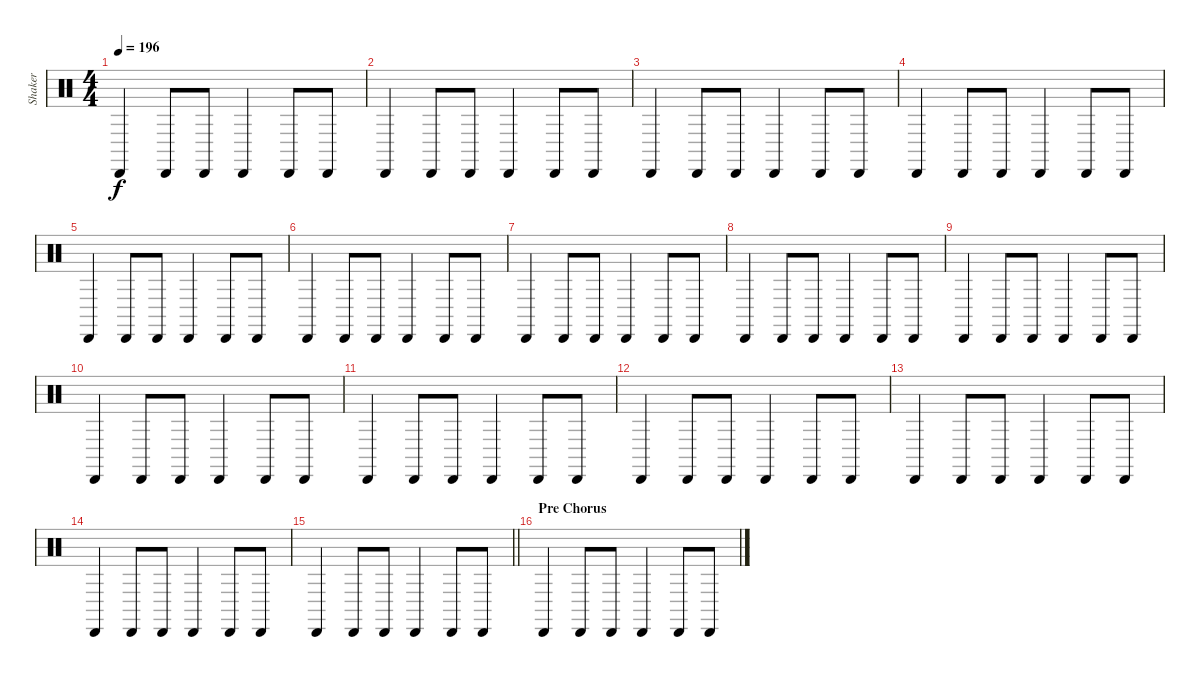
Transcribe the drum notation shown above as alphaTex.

\track ("Shaker" "Shaker") {instrument percussion bank 126}
\staff {score}
\articulation defaults
\ts (4 4)
\tempo 196
\clef neutral
\ks c "Cabasa (hit)".4{dy f} "Cabasa (hit)".8 "Cabasa (hit)".8 "Cabasa (hit)".4 "Cabasa (hit)".8 "Cabasa (hit)".8
|
"Cabasa (hit)".4 "Cabasa (hit)".8 "Cabasa (hit)".8 "Cabasa (hit)".4 "Cabasa (hit)".8 "Cabasa (hit)".8 |
"Cabasa (hit)".4 "Cabasa (hit)".8 "Cabasa (hit)".8 "Cabasa (hit)".4 "Cabasa (hit)".8 "Cabasa (hit)".8 |
"Cabasa (hit)".4 "Cabasa (hit)".8 "Cabasa (hit)".8 "Cabasa (hit)".4 "Cabasa (hit)".8 "Cabasa (hit)".8 |
"Cabasa (hit)".4 "Cabasa (hit)".8 "Cabasa (hit)".8 "Cabasa (hit)".4 "Cabasa (hit)".8 "Cabasa (hit)".8 |
"Cabasa (hit)".4 "Cabasa (hit)".8 "Cabasa (hit)".8 "Cabasa (hit)".4 "Cabasa (hit)".8 "Cabasa (hit)".8 |
"Cabasa (hit)".4 "Cabasa (hit)".8 "Cabasa (hit)".8 "Cabasa (hit)".4 "Cabasa (hit)".8 "Cabasa (hit)".8 |
"Cabasa (hit)".4 "Cabasa (hit)".8 "Cabasa (hit)".8 "Cabasa (hit)".4 "Cabasa (hit)".8 "Cabasa (hit)".8 |
"Cabasa (hit)".4 "Cabasa (hit)".8 "Cabasa (hit)".8 "Cabasa (hit)".4 "Cabasa (hit)".8 "Cabasa (hit)".8 |
"Cabasa (hit)".4 "Cabasa (hit)".8 "Cabasa (hit)".8 "Cabasa (hit)".4 "Cabasa (hit)".8 "Cabasa (hit)".8 |
"Cabasa (hit)".4 "Cabasa (hit)".8 "Cabasa (hit)".8 "Cabasa (hit)".4 "Cabasa (hit)".8 "Cabasa (hit)".8 |
"Cabasa (hit)".4 "Cabasa (hit)".8 "Cabasa (hit)".8 "Cabasa (hit)".4 "Cabasa (hit)".8 "Cabasa (hit)".8 |
"Cabasa (hit)".4 "Cabasa (hit)".8 "Cabasa (hit)".8 "Cabasa (hit)".4 "Cabasa (hit)".8 "Cabasa (hit)".8 |
"Cabasa (hit)".4 "Cabasa (hit)".8 "Cabasa (hit)".8 "Cabasa (hit)".4 "Cabasa (hit)".8 "Cabasa (hit)".8 |
\barLineRight lightlight "Cabasa (hit)".4 "Cabasa (hit)".8 "Cabasa (hit)".8 "Cabasa (hit)".4 "Cabasa (hit)".8 "Cabasa (hit)".8
|
\section ("" "Pre Chorus")
"Cabasa (hit)".4 "Cabasa (hit)".8 "Cabasa (hit)".8 "Cabasa (hit)".4 "Cabasa (hit)".8 "Cabasa (hit)".8
